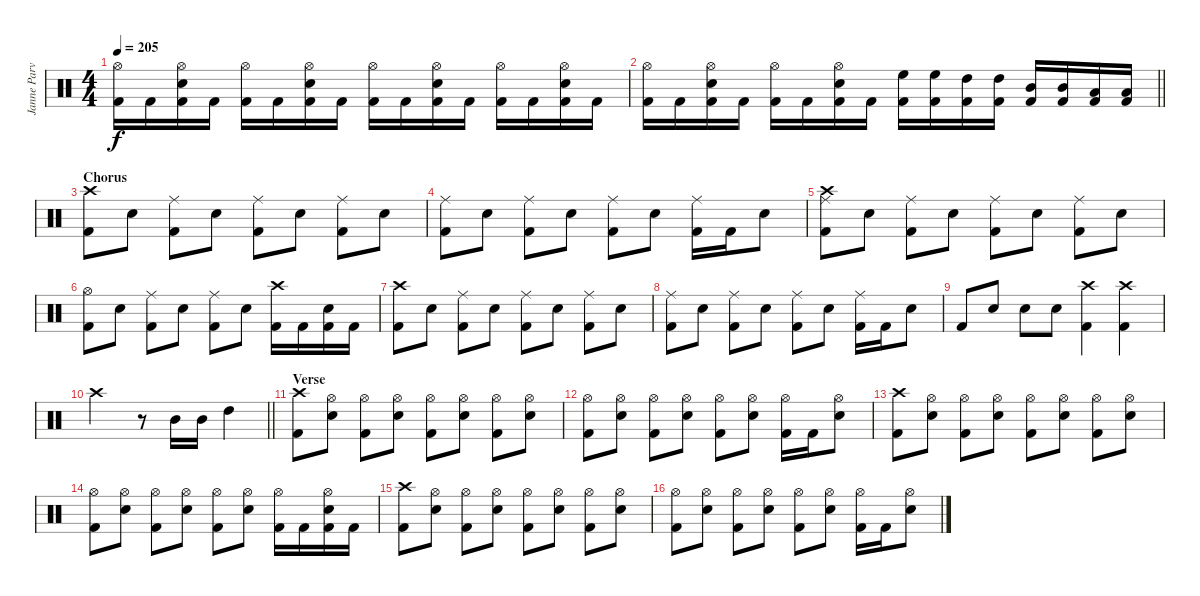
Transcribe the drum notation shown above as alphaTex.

\track ("Janne Parviainen" "Janne Parv") {instrument percussion}
\staff {score}
\articulation defaults
\ts (4 4)
\tempo 205
\clef neutral
\ks c
("Hi-Hat (open)" "Kick (hit) 2").16{dy f} "Kick (hit) 2".16 ("Hi-Hat (open)" "Snare (hit) 2" "Kick (hit) 2").16 "Kick (hit) 2".16 ("Hi-Hat (open)" "Kick (hit) 2").16 "Kick (hit) 2".16 ("Hi-Hat (open)" "Snare (hit) 2" "Kick (hit) 2").16 "Kick (hit) 2".16 ("Hi-Hat (open)" "Kick (hit) 2").16 "Kick (hit) 2".16 ("Hi-Hat (open)" "Snare (hit) 2" "Kick (hit) 2").16 "Kick (hit) 2".16 ("Hi-Hat (open)" "Kick (hit) 2").16 "Kick (hit) 2".16 ("Hi-Hat (open)" "Snare (hit) 2" "Kick (hit) 2").16 "Kick (hit) 2".16 |
\barLineRight lightlight
("Hi-Hat (open)" "Kick (hit) 2").16 "Kick (hit) 2".16 ("Hi-Hat (open)" "Snare (hit) 2" "Kick (hit) 2").16 "Kick (hit) 2".16 ("Hi-Hat (open)" "Kick (hit) 2").16 "Kick (hit) 2".16 ("Hi-Hat (open)" "Snare (hit) 2" "Kick (hit) 2").16 "Kick (hit) 2".16 ("High Floor Tom (hit)" "Kick (hit) 2").16 ("High Floor Tom (hit)" "Kick (hit) 2").16 ("High Tom (hit)" "Kick (hit) 2").16 ("High Tom (hit)" "Kick (hit) 2").16 ("Mid Tom (hit)" "Kick (hit) 2").16 ("Mid Tom (hit)" "Kick (hit) 2").16 ("Low Tom (hit)" "Kick (hit) 2").16 ("Low Tom (hit)" "Kick (hit) 2").16 |
\section ("" "Chorus")
("Crash high (hit)" "Kick (hit) 2").8 "Electric Snare (hit)".8 ("Ride (middle)" "Kick (hit) 2").8 "Electric Snare (hit)".8 ("Ride (middle)" "Kick (hit) 2").8 "Electric Snare (hit)".8 ("Ride (middle)" "Kick (hit) 2").8 "Electric Snare (hit)".8 |
("Ride (middle)" "Kick (hit) 2").8 "Electric Snare (hit)".8 ("Ride (middle)" "Kick (hit) 2").8 "Electric Snare (hit)".8 ("Ride (middle)" "Kick (hit) 2").8 "Electric Snare (hit)".8 ("Ride (middle)" "Kick (hit) 2").16 "Kick (hit) 2".16 "Electric Snare (hit)".8 |
("Crash high (hit)" "Ride (middle)" "Kick (hit) 2").8 "Electric Snare (hit)".8 ("Ride (middle)" "Kick (hit) 2").8 "Electric Snare (hit)".8 ("Ride (middle)" "Kick (hit) 2").8 "Electric Snare (hit)".8 ("Ride (middle)" "Kick (hit) 2").8 "Electric Snare (hit)".8 |
("Hi-Hat (open)" "Kick (hit) 2").8 "Electric Snare (hit)".8 ("Ride (middle)" "Kick (hit) 2").8 "Electric Snare (hit)".8 ("Ride (middle)" "Kick (hit) 2").8 "Electric Snare (hit)".8 ("Crash high (hit)" "Kick (hit) 2").16 "Kick (hit) 2".16 ("Electric Snare (hit)" "Kick (hit) 2").16 "Kick (hit) 2".16 |
("Crash high (hit)" "Kick (hit) 2").8 "Electric Snare (hit)".8 ("Ride (middle)" "Kick (hit) 2").8 "Electric Snare (hit)".8 ("Ride (middle)" "Kick (hit) 2").8 "Electric Snare (hit)".8 ("Ride (middle)" "Kick (hit) 2").8 "Electric Snare (hit)".8 |
("Ride (middle)" "Kick (hit) 2").8 "Electric Snare (hit)".8 ("Ride (middle)" "Kick (hit) 2").8 "Electric Snare (hit)".8 ("Ride (middle)" "Kick (hit) 2").8 "Electric Snare (hit)".8 ("Ride (middle)" "Kick (hit) 2").16 "Kick (hit) 2".16 "Electric Snare (hit)".8 |
"Kick (hit) 2".8 "Snare (hit) 2".8 "Snare (hit) 2".8 "Snare (hit) 2".8 ("Crash high (hit)" "Kick (hit) 2").4 ("Crash high (hit)" "Kick (hit) 2").4 |
\barLineRight lightlight "Crash high (hit)".2
r.8 "Mid Tom (hit)".16 "Mid Tom (hit)".16 "High Tom (hit)".4 |
\section ("" "Verse")
("Crash high (hit)" "Kick (hit) 2").8 ("Hi-Hat (open)" "Electric Snare (hit)").8 ("Hi-Hat (open)" "Kick (hit) 2").8 ("Hi-Hat (open)" "Electric Snare (hit)").8 ("Hi-Hat (open)" "Kick (hit) 2").8 ("Hi-Hat (open)" "Electric Snare (hit)").8 ("Hi-Hat (open)" "Kick (hit) 2").8 ("Hi-Hat (open)" "Electric Snare (hit)").8 |
("Hi-Hat (open)" "Kick (hit) 2").8 ("Hi-Hat (open)" "Electric Snare (hit)").8 ("Hi-Hat (open)" "Kick (hit) 2").8 ("Hi-Hat (open)" "Electric Snare (hit)").8 ("Hi-Hat (open)" "Kick (hit) 2").8 ("Hi-Hat (open)" "Electric Snare (hit)").8 ("Hi-Hat (open)" "Kick (hit) 2").16 "Kick (hit) 2".16 ("Hi-Hat (open)" "Electric Snare (hit)").8 |
("Crash high (hit)" "Kick (hit) 2").8 ("Hi-Hat (open)" "Electric Snare (hit)").8 ("Hi-Hat (open)" "Kick (hit) 2").8 ("Hi-Hat (open)" "Electric Snare (hit)").8 ("Hi-Hat (open)" "Kick (hit) 2").8 ("Hi-Hat (open)" "Electric Snare (hit)").8 ("Hi-Hat (open)" "Kick (hit) 2").8 ("Hi-Hat (open)" "Electric Snare (hit)").8 |
("Hi-Hat (open)" "Kick (hit) 2").8 ("Hi-Hat (open)" "Electric Snare (hit)").8 ("Hi-Hat (open)" "Kick (hit) 2").8 ("Hi-Hat (open)" "Electric Snare (hit)").8 ("Hi-Hat (open)" "Kick (hit) 2").8 ("Hi-Hat (open)" "Electric Snare (hit)").8 ("Hi-Hat (open)" "Kick (hit) 2").16 "Kick (hit) 2".16 ("Hi-Hat (open)" "Electric Snare (hit)" "Kick (hit) 2").16 "Kick (hit) 2".16 |
("Crash high (hit)" "Kick (hit) 2").8 ("Hi-Hat (open)" "Electric Snare (hit)").8 ("Hi-Hat (open)" "Kick (hit) 2").8 ("Hi-Hat (open)" "Electric Snare (hit)").8 ("Hi-Hat (open)" "Kick (hit) 2").8 ("Hi-Hat (open)" "Electric Snare (hit)").8 ("Hi-Hat (open)" "Kick (hit) 2").8 ("Hi-Hat (open)" "Electric Snare (hit)").8 |
("Hi-Hat (open)" "Kick (hit) 2").8 ("Hi-Hat (open)" "Electric Snare (hit)").8 ("Hi-Hat (open)" "Kick (hit) 2").8 ("Hi-Hat (open)" "Electric Snare (hit)").8 ("Hi-Hat (open)" "Kick (hit) 2").8 ("Hi-Hat (open)" "Electric Snare (hit)").8 ("Hi-Hat (open)" "Kick (hit) 2").16 "Kick (hit) 2".16 ("Hi-Hat (open)" "Electric Snare (hit)").8
